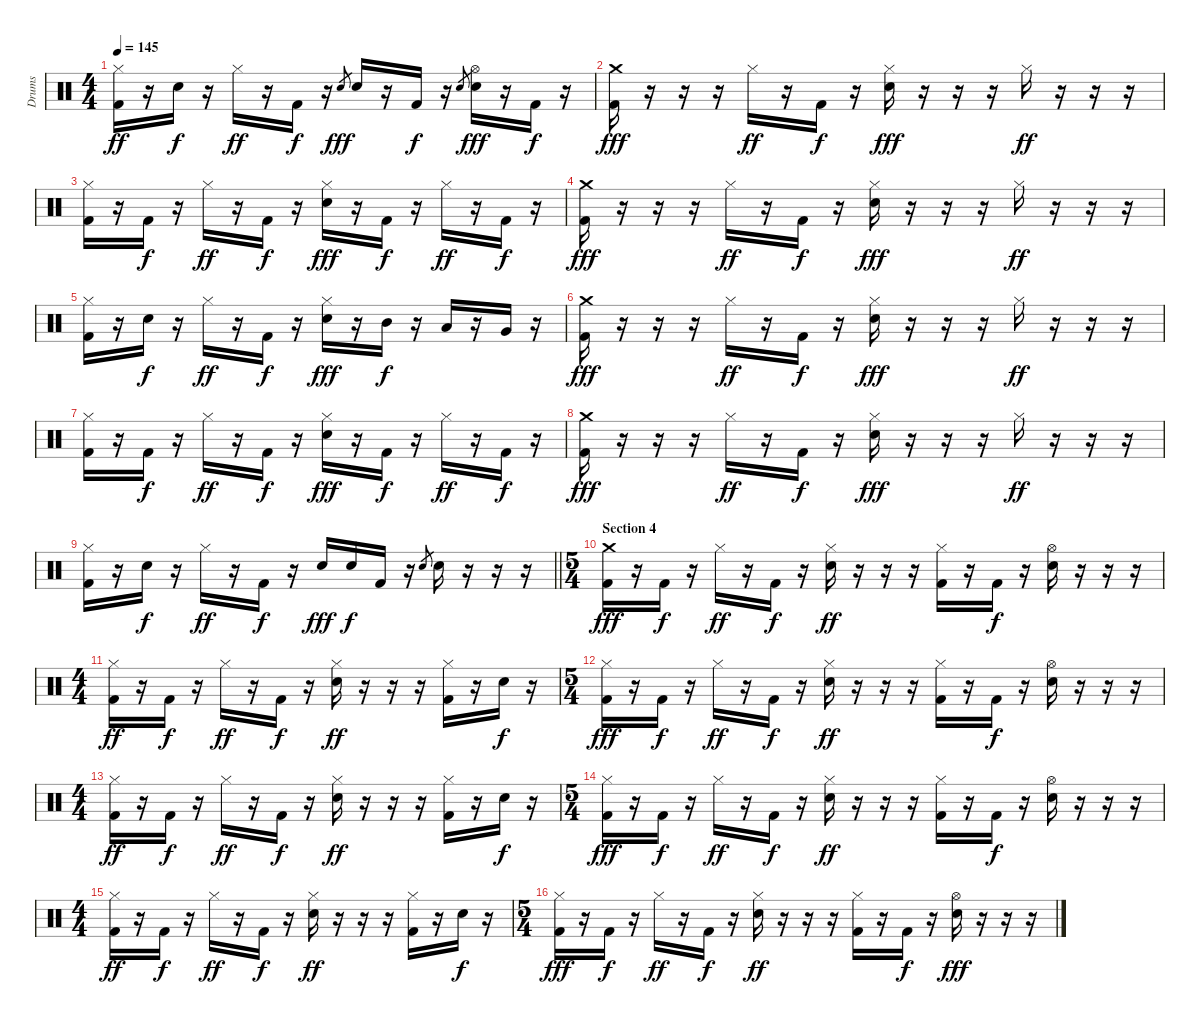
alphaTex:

\track ("Drums" "Drums") {instrument percussion}
\staff {score}
\articulation defaults
\ts (4 4)
\tempo 145
\clef neutral
\ks c
("Hi-Hat (closed)" "Kick (hit) 2").16{dy ff} r.16 "Electric Snare (hit)".16{dy f} r.16 "Hi-Hat (closed)".16{dy ff} r.16 "Kick (hit) 2".16{dy f} r.16 "Electric Snare (hit)".8{gr dy fff} "Electric Snare (hit)".16 r.16 "Kick (hit) 2".16{dy f} r.16 "Electric Snare (hit)".8{gr} ("Hi-Hat (open)" "Electric Snare (hit)").16{dy fff} r.16 "Kick (hit) 2".16{dy f} r.16 |
("Crash medium (hit)" "Kick (hit) 2").16{dy fff} r.16 r.16 r.16 "Hi-Hat (closed)".16{dy ff} r.16 "Kick (hit) 2".16{dy f} r.16 ("Hi-Hat (closed)" "Electric Snare (hit)").16{dy fff} r.16 r.16 r.16 "Hi-Hat (closed)".16{dy ff} r.16 r.16 r.16 |
("Hi-Hat (closed)" "Kick (hit) 2").16 r.16 "Kick (hit) 2".16{dy f} r.16 "Hi-Hat (closed)".16{dy ff} r.16 "Kick (hit) 2".16{dy f} r.16 ("Hi-Hat (closed)" "Electric Snare (hit)").16{dy fff} r.16 "Kick (hit) 2".16{dy f} r.16 "Hi-Hat (closed)".16{dy ff} r.16 "Kick (hit) 2".16{dy f} r.16 |
("Crash medium (hit)" "Kick (hit) 2").16{dy fff} r.16 r.16 r.16 "Hi-Hat (closed)".16{dy ff} r.16 "Kick (hit) 2".16{dy f} r.16 ("Hi-Hat (closed)" "Electric Snare (hit)").16{dy fff} r.16 r.16 r.16 "Hi-Hat (closed)".16{dy ff} r.16 r.16 r.16 |
("Hi-Hat (closed)" "Kick (hit) 2").16 r.16 "Electric Snare (hit)".16{dy f} r.16 "Hi-Hat (closed)".16{dy ff} r.16 "Kick (hit) 2".16{dy f} r.16 ("Hi-Hat (closed)" "Electric Snare (hit)").16{dy fff} r.16 "Mid Tom (hit)".16{dy f} r.16 "Low Tom (hit)".16 r.16 "Very Low Tom (hit)".16 r.16 |
("Crash medium (hit)" "Kick (hit) 2").16{dy fff} r.16 r.16 r.16 "Hi-Hat (closed)".16{dy ff} r.16 "Kick (hit) 2".16{dy f} r.16 ("Hi-Hat (closed)" "Electric Snare (hit)").16{dy fff} r.16 r.16 r.16 "Hi-Hat (closed)".16{dy ff} r.16 r.16 r.16 |
("Hi-Hat (closed)" "Kick (hit) 2").16 r.16 "Kick (hit) 2".16{dy f} r.16 "Hi-Hat (closed)".16{dy ff} r.16 "Kick (hit) 2".16{dy f} r.16 ("Hi-Hat (closed)" "Electric Snare (hit)").16{dy fff} r.16 "Kick (hit) 2".16{dy f} r.16 "Hi-Hat (closed)".16{dy ff} r.16 "Kick (hit) 2".16{dy f} r.16 |
("Crash medium (hit)" "Kick (hit) 2").16{dy fff} r.16 r.16 r.16 "Hi-Hat (closed)".16{dy ff} r.16 "Kick (hit) 2".16{dy f} r.16 ("Hi-Hat (closed)" "Electric Snare (hit)").16{dy fff} r.16 r.16 r.16 "Hi-Hat (closed)".16{dy ff} r.16 r.16 r.16 |
\barLineRight lightlight
("Hi-Hat (closed)" "Kick (hit) 2").16 r.16 "Electric Snare (hit)".16{dy f} r.16 "Hi-Hat (closed)".16{dy ff} r.16 "Kick (hit) 2".16{dy f} r.16 "Electric Snare (hit)".16{dy fff} "Electric Snare (hit)".16{dy f} "Kick (hit) 2".16 r.16 "Electric Snare (hit)".8{gr} "Electric Snare (hit)".16 r.16 r.16 r.16 |
\ts (5 4)
\section ("" "Section 4")
("Crash medium (hit)" "Kick (hit) 2").16{dy fff} r.16 "Kick (hit) 2".16{dy f} r.16 "Hi-Hat (closed)".16{dy ff} r.16 "Kick (hit) 2".16{dy f} r.16 ("Hi-Hat (closed)" "Electric Snare (hit)").16{dy ff} r.16 r.16 r.16 ("Hi-Hat (closed)" "Kick (hit) 2").16 r.16 "Kick (hit) 2".16{dy f} r.16 ("Hi-Hat (open)" "Electric Snare (hit)").16 r.16 r.16 r.16 |
\ts (4 4)
("Hi-Hat (closed)" "Kick (hit) 2").16{dy ff} r.16 "Kick (hit) 2".16{dy f} r.16 "Hi-Hat (closed)".16{dy ff} r.16 "Kick (hit) 2".16{dy f} r.16 ("Hi-Hat (closed)" "Electric Snare (hit)").16{dy ff} r.16 r.16 r.16 ("Hi-Hat (closed)" "Kick (hit) 2").16 r.16 "Electric Snare (hit)".16{dy f} r.16 |
\ts (5 4)
("Hi-Hat (closed)" "Kick (hit) 2").16{dy fff} r.16 "Kick (hit) 2".16{dy f} r.16 "Hi-Hat (closed)".16{dy ff} r.16 "Kick (hit) 2".16{dy f} r.16 ("Hi-Hat (closed)" "Electric Snare (hit)").16{dy ff} r.16 r.16 r.16 ("Hi-Hat (closed)" "Kick (hit) 2").16 r.16 "Kick (hit) 2".16{dy f} r.16 ("Hi-Hat (open)" "Electric Snare (hit)").16 r.16 r.16 r.16 |
\ts (4 4)
("Hi-Hat (closed)" "Kick (hit) 2").16{dy ff} r.16 "Kick (hit) 2".16{dy f} r.16 "Hi-Hat (closed)".16{dy ff} r.16 "Kick (hit) 2".16{dy f} r.16 ("Hi-Hat (closed)" "Electric Snare (hit)").16{dy ff} r.16 r.16 r.16 ("Hi-Hat (closed)" "Kick (hit) 2").16 r.16 "Electric Snare (hit)".16{dy f} r.16 |
\ts (5 4)
("Hi-Hat (closed)" "Kick (hit) 2").16{dy fff} r.16 "Kick (hit) 2".16{dy f} r.16 "Hi-Hat (closed)".16{dy ff} r.16 "Kick (hit) 2".16{dy f} r.16 ("Hi-Hat (closed)" "Electric Snare (hit)").16{dy ff} r.16 r.16 r.16 ("Hi-Hat (closed)" "Kick (hit) 2").16 r.16 "Kick (hit) 2".16{dy f} r.16 ("Hi-Hat (open)" "Electric Snare (hit)").16 r.16 r.16 r.16 |
\ts (4 4)
("Hi-Hat (closed)" "Kick (hit) 2").16{dy ff} r.16 "Kick (hit) 2".16{dy f} r.16 "Hi-Hat (closed)".16{dy ff} r.16 "Kick (hit) 2".16{dy f} r.16 ("Hi-Hat (closed)" "Electric Snare (hit)").16{dy ff} r.16 r.16 r.16 ("Hi-Hat (closed)" "Kick (hit) 2").16 r.16 "Electric Snare (hit)".16{dy f} r.16 |
\ts (5 4)
("Hi-Hat (closed)" "Kick (hit) 2").16{dy fff} r.16 "Kick (hit) 2".16{dy f} r.16 "Hi-Hat (closed)".16{dy ff} r.16 "Kick (hit) 2".16{dy f} r.16 ("Hi-Hat (closed)" "Electric Snare (hit)").16{dy ff} r.16 r.16 r.16 ("Hi-Hat (closed)" "Kick (hit) 2").16 r.16 "Kick (hit) 2".16{dy f} r.16 ("Hi-Hat (open)" "Electric Snare (hit)").16{dy fff} r.16 r.16 r.16
